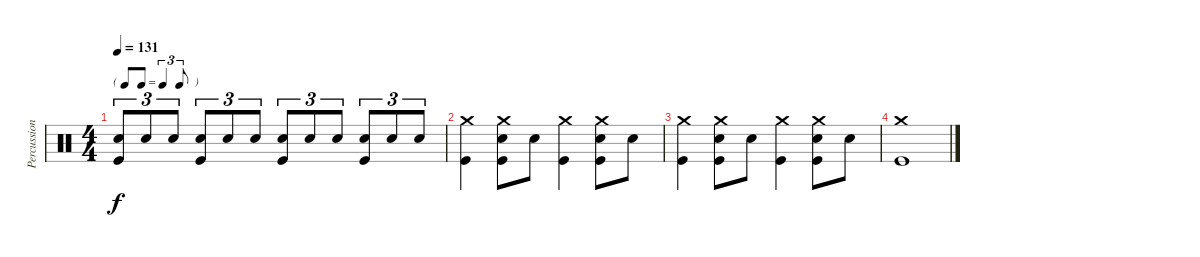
\track ("Percussion" "Percussion") {instrument percussion}
\staff {score}
\articulation defaults
\ts (4 4)
\tf triplet8th
\tempo 131
\clef neutral
\ks c
("Snare (hit) 2" "Kick (hit)").8{tu (3 2) dy f} "Snare (hit) 2".8{tu (3 2)} "Snare (hit) 2".8{tu (3 2)} ("Snare (hit) 2" "Kick (hit)").8{tu (3 2)} "Snare (hit) 2".8{tu (3 2)} "Snare (hit) 2".8{tu (3 2)} ("Snare (hit) 2" "Kick (hit)").8{tu (3 2)} "Snare (hit) 2".8{tu (3 2)} "Snare (hit) 2".8{tu (3 2)} ("Snare (hit) 2" "Kick (hit)").8{tu (3 2)} "Snare (hit) 2".8{tu (3 2)} "Snare (hit) 2".8{tu (3 2)} |
("Crash medium (hit)" "Kick (hit)").4 ("Crash medium (hit)" "Snare (hit) 2" "Kick (hit)").8 "Snare (hit) 2".8 ("Crash medium (hit)" "Kick (hit)").4 ("Crash medium (hit)" "Snare (hit) 2" "Kick (hit)").8 "Snare (hit) 2".8 |
("Crash medium (hit)" "Kick (hit)").4 ("Crash medium (hit)" "Snare (hit) 2" "Kick (hit)").8 "Snare (hit) 2".8 ("Crash medium (hit)" "Kick (hit)").4 ("Crash medium (hit)" "Snare (hit) 2" "Kick (hit)").8 "Snare (hit) 2".8 |
("Crash medium (hit)" "Kick (hit)").1
